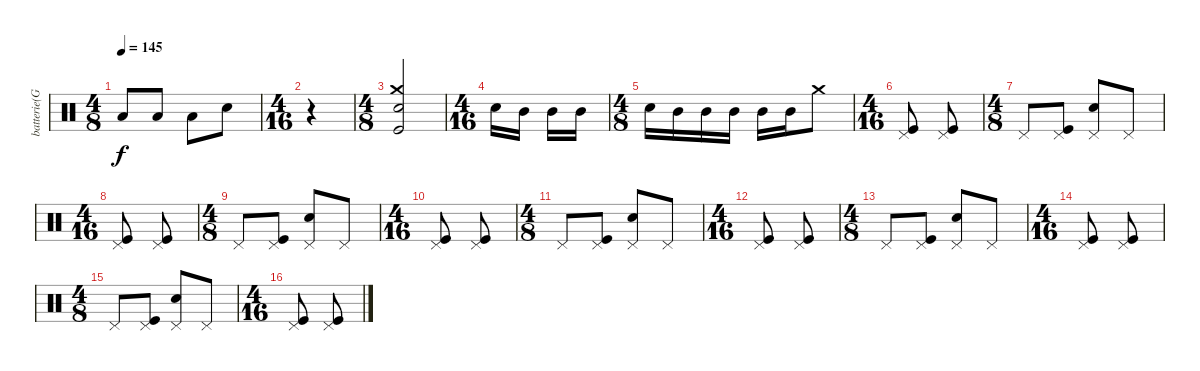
\track ("batterie(Granberg)" "batterie(G") {instrument percussion}
\staff {score}
\articulation defaults
\ts (4 8)
\tempo 145
\clef neutral
\ks c "Low Floor Tom (hit)".8{dy f} "Low Floor Tom (hit)".8 "Low Floor Tom (hit)".8 "Snare (hit) 2".8
|
\ts (4 16)
r.4 |
\ts (4 8)
("Crash medium (hit)" "Snare (hit) 2" "Kick (hit)").2 |
\ts (4 16)
"Snare (hit) 2".16 "Mid Tom (hit)".16 "Mid Tom (hit)".16 "Mid Tom (hit)".16 |
\ts (4 8)
"Snare (hit) 2".16 "Mid Tom (hit)".16 "Mid Tom (hit)".16 "Mid Tom (hit)".16 "Mid Tom (hit)".16 "Mid Tom (hit)".16 "Crash medium (hit)".8 |
\ts (4 16)
("Pedal Hi-Hat (hit)" "Kick (hit)").8 ("Pedal Hi-Hat (hit)" "Kick (hit)").8 |
\ts (4 8)
"Pedal Hi-Hat (hit)".8 ("Pedal Hi-Hat (hit)" "Kick (hit)").8 ("Pedal Hi-Hat (hit)" "Snare (hit) 2").8 "Pedal Hi-Hat (hit)".8 |
\ts (4 16)
("Pedal Hi-Hat (hit)" "Kick (hit)").8 ("Pedal Hi-Hat (hit)" "Kick (hit)").8 |
\ts (4 8)
"Pedal Hi-Hat (hit)".8 ("Pedal Hi-Hat (hit)" "Kick (hit)").8 ("Pedal Hi-Hat (hit)" "Snare (hit) 2").8 "Pedal Hi-Hat (hit)".8 |
\ts (4 16)
("Pedal Hi-Hat (hit)" "Kick (hit)").8 ("Pedal Hi-Hat (hit)" "Kick (hit)").8 |
\ts (4 8)
"Pedal Hi-Hat (hit)".8 ("Pedal Hi-Hat (hit)" "Kick (hit)").8 ("Pedal Hi-Hat (hit)" "Snare (hit) 2").8 "Pedal Hi-Hat (hit)".8 |
\ts (4 16)
("Pedal Hi-Hat (hit)" "Kick (hit)").8 ("Pedal Hi-Hat (hit)" "Kick (hit)").8 |
\ts (4 8)
"Pedal Hi-Hat (hit)".8 ("Pedal Hi-Hat (hit)" "Kick (hit)").8 ("Pedal Hi-Hat (hit)" "Snare (hit) 2").8 "Pedal Hi-Hat (hit)".8 |
\ts (4 16)
("Pedal Hi-Hat (hit)" "Kick (hit)").8 ("Pedal Hi-Hat (hit)" "Kick (hit)").8 |
\ts (4 8)
"Pedal Hi-Hat (hit)".8 ("Pedal Hi-Hat (hit)" "Kick (hit)").8 ("Pedal Hi-Hat (hit)" "Snare (hit) 2").8 "Pedal Hi-Hat (hit)".8 |
\ts (4 16)
("Pedal Hi-Hat (hit)" "Kick (hit)").8 ("Pedal Hi-Hat (hit)" "Kick (hit)").8
